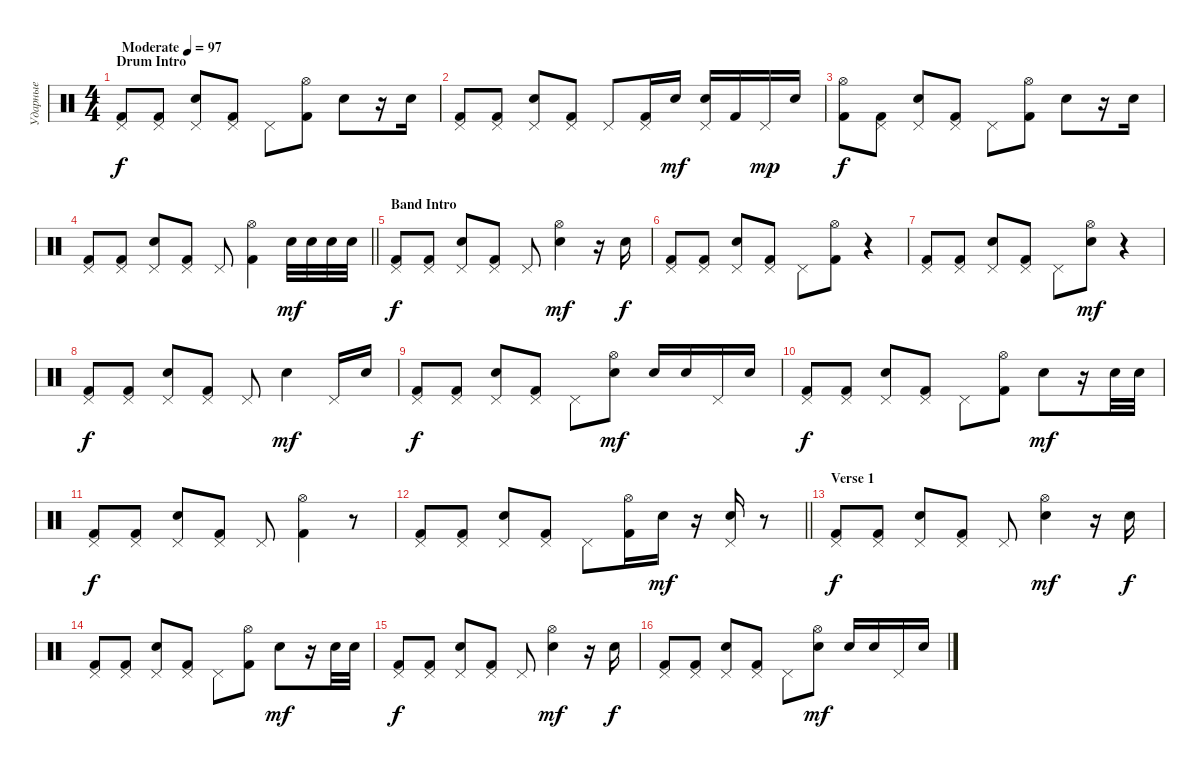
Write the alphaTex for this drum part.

\track ("Ударные" "Ударные") {instrument percussion}
\staff {score}
\articulation defaults
\ts (4 4)
\section ("" "Drum Intro")
\tempo (97 "Moderate")
\clef neutral
\ks c
("Pedal Hi-Hat (hit)" "Kick (hit) 2").8{dy f} ("Pedal Hi-Hat (hit)" "Kick (hit) 2").8 ("Pedal Hi-Hat (hit)" "Snare (hit) 2").8 ("Pedal Hi-Hat (hit)" "Kick (hit) 2").8 "Pedal Hi-Hat (hit)".8 ("Hi-Hat (open)" "Kick (hit) 2").8 "Snare (hit) 2".8 r.16 "Snare (hit) 2".16 |
("Pedal Hi-Hat (hit)" "Kick (hit) 2").8 ("Pedal Hi-Hat (hit)" "Kick (hit) 2").8 ("Pedal Hi-Hat (hit)" "Snare (hit) 2").8 ("Pedal Hi-Hat (hit)" "Kick (hit) 2").8 "Pedal Hi-Hat (hit)".8 ("Pedal Hi-Hat (hit)" "Kick (hit) 2").16 "Snare (hit) 2".16{dy mf} ("Pedal Hi-Hat (hit)" "Snare (hit) 2").16 "Kick (hit) 2".16 "Pedal Hi-Hat (hit)".16{dy mp} "Snare (hit) 2".16 |
("Hi-Hat (open)" "Kick (hit) 2").8{dy f} ("Pedal Hi-Hat (hit)" "Kick (hit) 2").8 ("Pedal Hi-Hat (hit)" "Snare (hit) 2").8 ("Pedal Hi-Hat (hit)" "Kick (hit) 2").8 "Pedal Hi-Hat (hit)".8 ("Hi-Hat (open)" "Kick (hit) 2").8 "Snare (hit) 2".8 r.16 "Snare (hit) 2".16 |
\barLineRight lightlight
("Pedal Hi-Hat (hit)" "Kick (hit) 2").8 ("Pedal Hi-Hat (hit)" "Kick (hit) 2").8 ("Pedal Hi-Hat (hit)" "Snare (hit) 2").8 ("Pedal Hi-Hat (hit)" "Kick (hit) 2").8 "Pedal Hi-Hat (hit)".8 ("Hi-Hat (open)" "Kick (hit) 2").4 "Snare (hit) 2".32{dy mf} "Snare (hit) 2".32 "Snare (hit) 2".32 "Snare (hit) 2".32 |
\section ("" "Band Intro")
("Pedal Hi-Hat (hit)" "Kick (hit) 2").8{dy f} ("Pedal Hi-Hat (hit)" "Kick (hit) 2").8 ("Pedal Hi-Hat (hit)" "Snare (hit) 2").8 ("Pedal Hi-Hat (hit)" "Kick (hit) 2").8 "Pedal Hi-Hat (hit)".8 ("Hi-Hat (open)" "Snare (hit) 2").4{dy mf} r.16 "Snare (hit) 2".16{dy f} |
("Pedal Hi-Hat (hit)" "Kick (hit) 2").8 ("Pedal Hi-Hat (hit)" "Kick (hit) 2").8 ("Pedal Hi-Hat (hit)" "Snare (hit) 2").8 ("Pedal Hi-Hat (hit)" "Kick (hit) 2").8 "Pedal Hi-Hat (hit)".8 ("Hi-Hat (open)" "Kick (hit) 2").8 r.4 |
("Pedal Hi-Hat (hit)" "Kick (hit) 2").8 ("Pedal Hi-Hat (hit)" "Kick (hit) 2").8 ("Pedal Hi-Hat (hit)" "Snare (hit) 2").8 ("Pedal Hi-Hat (hit)" "Kick (hit) 2").8 "Pedal Hi-Hat (hit)".8 ("Hi-Hat (open)" "Snare (hit) 2").8{dy mf} r.4 |
("Pedal Hi-Hat (hit)" "Kick (hit) 2").8{dy f} ("Pedal Hi-Hat (hit)" "Kick (hit) 2").8 ("Pedal Hi-Hat (hit)" "Snare (hit) 2").8 ("Pedal Hi-Hat (hit)" "Kick (hit) 2").8 "Pedal Hi-Hat (hit)".8 "Snare (hit) 2".4{dy mf} "Pedal Hi-Hat (hit)".16 "Snare (hit) 2".16 |
("Pedal Hi-Hat (hit)" "Kick (hit) 2").8{dy f} ("Pedal Hi-Hat (hit)" "Kick (hit) 2").8 ("Pedal Hi-Hat (hit)" "Snare (hit) 2").8 ("Pedal Hi-Hat (hit)" "Kick (hit) 2").8 "Pedal Hi-Hat (hit)".8 ("Hi-Hat (open)" "Snare (hit) 2").8{dy mf} "Snare (hit) 2".16 "Snare (hit) 2".16 "Pedal Hi-Hat (hit)".16 "Snare (hit) 2".16 |
("Pedal Hi-Hat (hit)" "Kick (hit) 2").8{dy f} ("Pedal Hi-Hat (hit)" "Kick (hit) 2").8 ("Pedal Hi-Hat (hit)" "Snare (hit) 2").8 ("Pedal Hi-Hat (hit)" "Kick (hit) 2").8 "Pedal Hi-Hat (hit)".8 ("Hi-Hat (open)" "Kick (hit) 2").8 "Snare (hit) 2".8{dy mf} r.16 "Snare (hit) 2".32 "Snare (hit) 2".32 |
("Pedal Hi-Hat (hit)" "Kick (hit) 2").8{dy f} ("Pedal Hi-Hat (hit)" "Kick (hit) 2").8 ("Pedal Hi-Hat (hit)" "Snare (hit) 2").8 ("Pedal Hi-Hat (hit)" "Kick (hit) 2").8 "Pedal Hi-Hat (hit)".8 ("Hi-Hat (open)" "Kick (hit) 2").4 r.8 |
\barLineRight lightlight
("Pedal Hi-Hat (hit)" "Kick (hit) 2").8 ("Pedal Hi-Hat (hit)" "Kick (hit) 2").8 ("Pedal Hi-Hat (hit)" "Snare (hit) 2").8 ("Pedal Hi-Hat (hit)" "Kick (hit) 2").8 "Pedal Hi-Hat (hit)".8 ("Hi-Hat (open)" "Kick (hit) 2").16 "Snare (hit) 2".16{dy mf} r.16 ("Pedal Hi-Hat (hit)" "Snare (hit) 2").16 r.8 |
\section ("" "Verse 1")
("Pedal Hi-Hat (hit)" "Kick (hit) 2").8{dy f} ("Pedal Hi-Hat (hit)" "Kick (hit) 2").8 ("Pedal Hi-Hat (hit)" "Snare (hit) 2").8 ("Pedal Hi-Hat (hit)" "Kick (hit) 2").8 "Pedal Hi-Hat (hit)".8 ("Hi-Hat (open)" "Snare (hit) 2").4{dy mf} r.16 "Snare (hit) 2".16{dy f} |
("Pedal Hi-Hat (hit)" "Kick (hit) 2").8 ("Pedal Hi-Hat (hit)" "Kick (hit) 2").8 ("Pedal Hi-Hat (hit)" "Snare (hit) 2").8 ("Pedal Hi-Hat (hit)" "Kick (hit) 2").8 "Pedal Hi-Hat (hit)".8 ("Hi-Hat (open)" "Kick (hit) 2").8 "Snare (hit) 2".8{dy mf} r.16 "Snare (hit) 2".32 "Snare (hit) 2".32 |
("Pedal Hi-Hat (hit)" "Kick (hit) 2").8{dy f} ("Pedal Hi-Hat (hit)" "Kick (hit) 2").8 ("Pedal Hi-Hat (hit)" "Snare (hit) 2").8 ("Pedal Hi-Hat (hit)" "Kick (hit) 2").8 "Pedal Hi-Hat (hit)".8 ("Hi-Hat (open)" "Snare (hit) 2").4{dy mf} r.16 "Snare (hit) 2".16{dy f} |
("Pedal Hi-Hat (hit)" "Kick (hit) 2").8 ("Pedal Hi-Hat (hit)" "Kick (hit) 2").8 ("Pedal Hi-Hat (hit)" "Snare (hit) 2").8 ("Pedal Hi-Hat (hit)" "Kick (hit) 2").8 "Pedal Hi-Hat (hit)".8 ("Hi-Hat (open)" "Snare (hit) 2").8{dy mf} "Snare (hit) 2".16 "Snare (hit) 2".16 "Pedal Hi-Hat (hit)".16 "Snare (hit) 2".16
